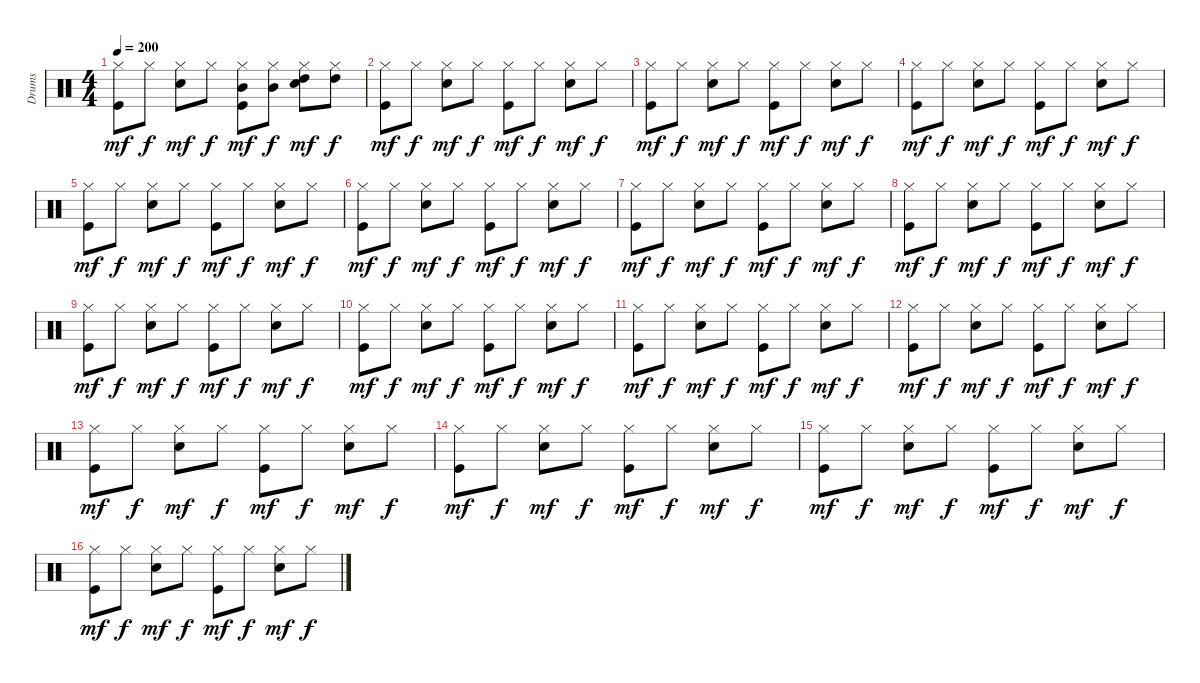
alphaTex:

\track ("Drums" "Drums") {instrument percussion}
\staff {score}
\articulation defaults
\ts (4 4)
\tempo 200
\clef neutral
\ks c
("Hi-Hat (closed)" "Kick (hit)").8{dy mf} "Hi-Hat (closed)".8{dy f} ("Hi-Hat (closed)" "Electric Snare (hit)").8{dy mf} "Hi-Hat (closed)".8{dy f} ("Mid Tom (hit)" "Hi-Hat (closed)" "Kick (hit)").8{dy mf} ("Mid Tom (hit)" "Hi-Hat (closed)").8{dy f} ("High Tom (hit)" "Hi-Hat (closed)" "Electric Snare (hit)").8{dy mf} ("High Tom (hit)" "Hi-Hat (closed)").8{dy f} |
("Hi-Hat (closed)" "Kick (hit)").8{dy mf} "Hi-Hat (closed)".8{dy f} ("Hi-Hat (closed)" "Electric Snare (hit)").8{dy mf} "Hi-Hat (closed)".8{dy f} ("Hi-Hat (closed)" "Kick (hit)").8{dy mf} "Hi-Hat (closed)".8{dy f} ("Hi-Hat (closed)" "Electric Snare (hit)").8{dy mf} "Hi-Hat (closed)".8{dy f} |
("Hi-Hat (closed)" "Kick (hit)").8{dy mf} "Hi-Hat (closed)".8{dy f} ("Hi-Hat (closed)" "Electric Snare (hit)").8{dy mf} "Hi-Hat (closed)".8{dy f} ("Hi-Hat (closed)" "Kick (hit)").8{dy mf} "Hi-Hat (closed)".8{dy f} ("Hi-Hat (closed)" "Electric Snare (hit)").8{dy mf} "Hi-Hat (closed)".8{dy f} |
("Hi-Hat (closed)" "Kick (hit)").8{dy mf} "Hi-Hat (closed)".8{dy f} ("Hi-Hat (closed)" "Electric Snare (hit)").8{dy mf} "Hi-Hat (closed)".8{dy f} ("Hi-Hat (closed)" "Kick (hit)").8{dy mf} "Hi-Hat (closed)".8{dy f} ("Hi-Hat (closed)" "Electric Snare (hit)").8{dy mf} "Hi-Hat (closed)".8{dy f} |
("Hi-Hat (closed)" "Kick (hit)").8{dy mf} "Hi-Hat (closed)".8{dy f} ("Hi-Hat (closed)" "Electric Snare (hit)").8{dy mf} "Hi-Hat (closed)".8{dy f} ("Hi-Hat (closed)" "Kick (hit)").8{dy mf} "Hi-Hat (closed)".8{dy f} ("Hi-Hat (closed)" "Electric Snare (hit)").8{dy mf} "Hi-Hat (closed)".8{dy f} |
("Hi-Hat (closed)" "Kick (hit)").8{dy mf} "Hi-Hat (closed)".8{dy f} ("Hi-Hat (closed)" "Electric Snare (hit)").8{dy mf} "Hi-Hat (closed)".8{dy f} ("Hi-Hat (closed)" "Kick (hit)").8{dy mf} "Hi-Hat (closed)".8{dy f} ("Hi-Hat (closed)" "Electric Snare (hit)").8{dy mf} "Hi-Hat (closed)".8{dy f} |
("Hi-Hat (closed)" "Kick (hit)").8{dy mf} "Hi-Hat (closed)".8{dy f} ("Hi-Hat (closed)" "Electric Snare (hit)").8{dy mf} "Hi-Hat (closed)".8{dy f} ("Hi-Hat (closed)" "Kick (hit)").8{dy mf} "Hi-Hat (closed)".8{dy f} ("Hi-Hat (closed)" "Electric Snare (hit)").8{dy mf} "Hi-Hat (closed)".8{dy f} |
("Hi-Hat (closed)" "Kick (hit)").8{dy mf} "Hi-Hat (closed)".8{dy f} ("Hi-Hat (closed)" "Electric Snare (hit)").8{dy mf} "Hi-Hat (closed)".8{dy f} ("Hi-Hat (closed)" "Kick (hit)").8{dy mf} "Hi-Hat (closed)".8{dy f} ("Hi-Hat (closed)" "Electric Snare (hit)").8{dy mf} "Hi-Hat (closed)".8{dy f} |
("Hi-Hat (closed)" "Kick (hit)").8{dy mf} "Hi-Hat (closed)".8{dy f} ("Hi-Hat (closed)" "Electric Snare (hit)").8{dy mf} "Hi-Hat (closed)".8{dy f} ("Hi-Hat (closed)" "Kick (hit)").8{dy mf} "Hi-Hat (closed)".8{dy f} ("Hi-Hat (closed)" "Electric Snare (hit)").8{dy mf} "Hi-Hat (closed)".8{dy f} |
("Hi-Hat (closed)" "Kick (hit)").8{dy mf} "Hi-Hat (closed)".8{dy f} ("Hi-Hat (closed)" "Electric Snare (hit)").8{dy mf} "Hi-Hat (closed)".8{dy f} ("Hi-Hat (closed)" "Kick (hit)").8{dy mf} "Hi-Hat (closed)".8{dy f} ("Hi-Hat (closed)" "Electric Snare (hit)").8{dy mf} "Hi-Hat (closed)".8{dy f} |
("Hi-Hat (closed)" "Kick (hit)").8{dy mf} "Hi-Hat (closed)".8{dy f} ("Hi-Hat (closed)" "Electric Snare (hit)").8{dy mf} "Hi-Hat (closed)".8{dy f} ("Hi-Hat (closed)" "Kick (hit)").8{dy mf} "Hi-Hat (closed)".8{dy f} ("Hi-Hat (closed)" "Electric Snare (hit)").8{dy mf} "Hi-Hat (closed)".8{dy f} |
("Hi-Hat (closed)" "Kick (hit)").8{dy mf} "Hi-Hat (closed)".8{dy f} ("Hi-Hat (closed)" "Electric Snare (hit)").8{dy mf} "Hi-Hat (closed)".8{dy f} ("Hi-Hat (closed)" "Kick (hit)").8{dy mf} "Hi-Hat (closed)".8{dy f} ("Hi-Hat (closed)" "Electric Snare (hit)").8{dy mf} "Hi-Hat (closed)".8{dy f} |
("Hi-Hat (closed)" "Kick (hit)").8{dy mf} "Hi-Hat (closed)".8{dy f} ("Hi-Hat (closed)" "Electric Snare (hit)").8{dy mf} "Hi-Hat (closed)".8{dy f} ("Hi-Hat (closed)" "Kick (hit)").8{dy mf} "Hi-Hat (closed)".8{dy f} ("Hi-Hat (closed)" "Electric Snare (hit)").8{dy mf} "Hi-Hat (closed)".8{dy f} |
("Hi-Hat (closed)" "Kick (hit)").8{dy mf} "Hi-Hat (closed)".8{dy f} ("Hi-Hat (closed)" "Electric Snare (hit)").8{dy mf} "Hi-Hat (closed)".8{dy f} ("Hi-Hat (closed)" "Kick (hit)").8{dy mf} "Hi-Hat (closed)".8{dy f} ("Hi-Hat (closed)" "Electric Snare (hit)").8{dy mf} "Hi-Hat (closed)".8{dy f} |
("Hi-Hat (closed)" "Kick (hit)").8{dy mf} "Hi-Hat (closed)".8{dy f} ("Hi-Hat (closed)" "Electric Snare (hit)").8{dy mf} "Hi-Hat (closed)".8{dy f} ("Hi-Hat (closed)" "Kick (hit)").8{dy mf} "Hi-Hat (closed)".8{dy f} ("Hi-Hat (closed)" "Electric Snare (hit)").8{dy mf} "Hi-Hat (closed)".8{dy f} |
("Hi-Hat (closed)" "Kick (hit)").8{dy mf} "Hi-Hat (closed)".8{dy f} ("Hi-Hat (closed)" "Electric Snare (hit)").8{dy mf} "Hi-Hat (closed)".8{dy f} ("Hi-Hat (closed)" "Kick (hit)").8{dy mf} "Hi-Hat (closed)".8{dy f} ("Hi-Hat (closed)" "Electric Snare (hit)").8{dy mf} "Hi-Hat (closed)".8{dy f}
